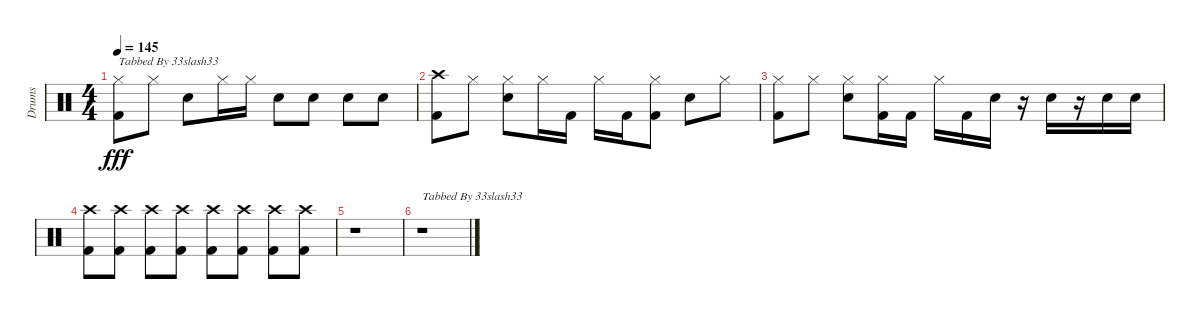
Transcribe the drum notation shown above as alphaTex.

\track ("Drums" "Drums") {instrument percussion}
\staff {score}
\articulation defaults
\ts (4 4)
\tempo 145
\clef neutral
\ks c
("Hi-Hat (closed)" "Kick (hit) 2").8{txt "Tabbed By 33slash33" dy fff} "Hi-Hat (closed)".8 "Snare (hit) 2".8 "Hi-Hat (closed)".16 "Hi-Hat (closed)".16 "Snare (hit) 2".8 "Snare (hit) 2".8 "Snare (hit) 2".8 "Snare (hit) 2".8 |
("Crash high (hit)" "Kick (hit) 2").8 "Hi-Hat (closed)".8 ("Hi-Hat (closed)" "Snare (hit) 2").8 "Hi-Hat (closed)".16 "Kick (hit) 2".16 "Hi-Hat (closed)".16 "Kick (hit) 2".16 ("Hi-Hat (closed)" "Kick (hit) 2").8 "Snare (hit) 2".8 "Hi-Hat (closed)".8 |
("Hi-Hat (closed)" "Kick (hit) 2").8 "Hi-Hat (closed)".8 ("Hi-Hat (closed)" "Snare (hit) 2").8 ("Hi-Hat (closed)" "Kick (hit) 2").16 "Kick (hit) 2".16 "Hi-Hat (closed)".16 "Kick (hit) 2".16 "Snare (hit) 2".16 r.16 "Snare (hit) 2".16 r.16 "Snare (hit) 2".16 "Snare (hit) 2".16 |
("Crash high (hit)" "Kick (hit) 2").8 ("Crash high (hit)" "Kick (hit) 2").8 ("Crash high (hit)" "Kick (hit) 2").8 ("Crash high (hit)" "Kick (hit) 2").8 ("Crash high (hit)" "Kick (hit) 2").8 ("Crash high (hit)" "Kick (hit) 2").8 ("Crash high (hit)" "Kick (hit) 2").8 ("Crash high (hit)" "Kick (hit) 2").8 |
r.1 |
r.1{txt "Tabbed By 33slash33"}
